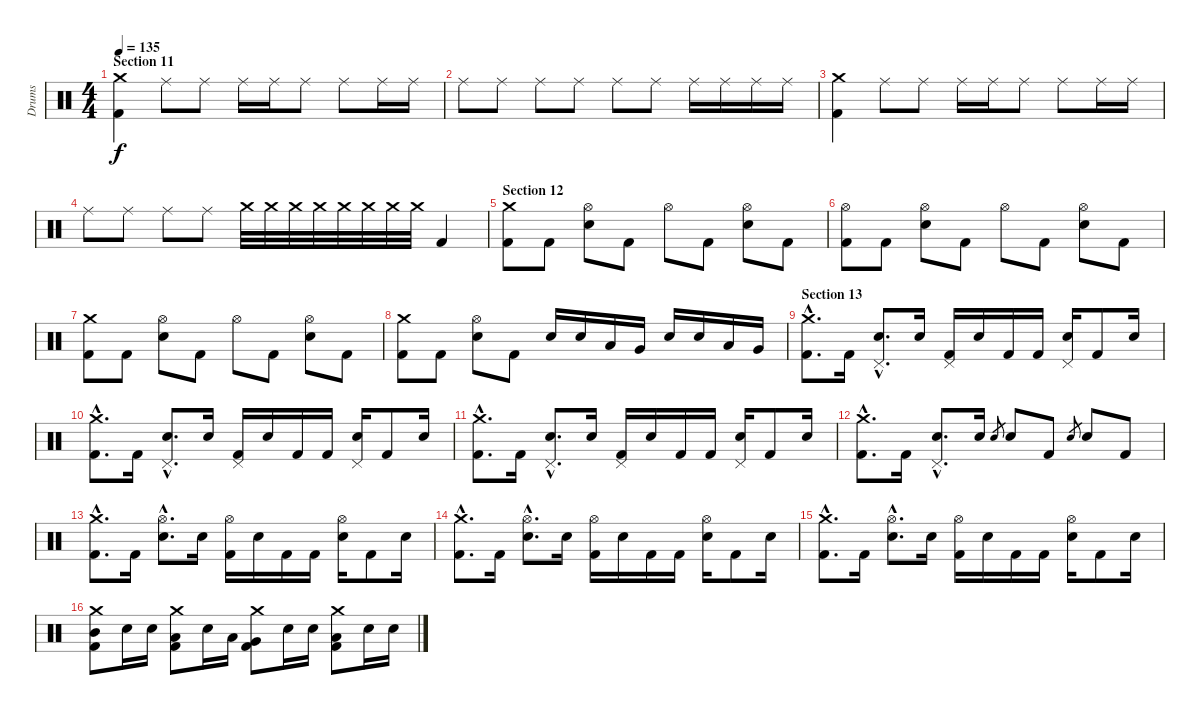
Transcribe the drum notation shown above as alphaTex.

\track ("Drums" "Drums") {instrument percussion}
\staff {score}
\articulation defaults
\ts (4 4)
\section ("" "Section 11")
\tempo 135
\clef neutral
\ks c
("Crash medium (hit)" "Kick (hit) 2").4{dy f} "Ride (middle)".8 "Ride (middle)".8 "Ride (middle)".16 "Ride (middle)".16 "Ride (middle)".8 "Ride (middle)".8 "Ride (middle)".16 "Ride (middle)".16 |
"Ride (middle)".8 "Ride (middle)".8 "Ride (middle)".8 "Ride (middle)".8 "Ride (middle)".8 "Ride (middle)".8 "Ride (middle)".16 "Ride (middle)".16 "Ride (middle)".16 "Ride (middle)".16 |
("Crash medium (hit)" "Kick (hit) 2").4 "Ride (middle)".8 "Ride (middle)".8 "Ride (middle)".16 "Ride (middle)".16 "Ride (middle)".8 "Ride (middle)".8 "Ride (middle)".16 "Ride (middle)".16 |
"Ride (middle)".8 "Ride (middle)".8 "Ride (middle)".8 "Ride (middle)".8{volume 0} "Crash medium (hit)".32{volume 13} "Crash medium (hit)".32 "Crash medium (hit)".32 "Crash medium (hit)".32 "Crash medium (hit)".32 "Crash medium (hit)".32 "Crash medium (hit)".32 "Crash medium (hit)".32 "Kick (hit) 2".4 |
\section ("" "Section 12")
("Crash medium (hit)" "Kick (hit) 2").8 "Kick (hit) 2".8 ("Hi-Hat (open)" "Electric Snare (hit)").8 "Kick (hit) 2".8 "Hi-Hat (open)".8 "Kick (hit) 2".8 ("Hi-Hat (open)" "Electric Snare (hit)").8 "Kick (hit) 2".8 |
("Hi-Hat (open)" "Kick (hit) 2").8 "Kick (hit) 2".8 ("Hi-Hat (open)" "Electric Snare (hit)").8 "Kick (hit) 2".8 "Hi-Hat (open)".8 "Kick (hit) 2".8 ("Hi-Hat (open)" "Electric Snare (hit)").8 "Kick (hit) 2".8 |
("Crash medium (hit)" "Kick (hit) 2").8 "Kick (hit) 2".8 ("Hi-Hat (open)" "Electric Snare (hit)").8 "Kick (hit) 2".8 "Hi-Hat (open)".8 "Kick (hit) 2".8 ("Hi-Hat (open)" "Electric Snare (hit)").8 "Kick (hit) 2".8 |
("Crash medium (hit)" "Kick (hit) 2").8 "Kick (hit) 2".8 ("Hi-Hat (open)" "Electric Snare (hit)").8 "Kick (hit) 2".8 "Electric Snare (hit)".16 "Electric Snare (hit)".16 "Low Tom (hit)".16 "Very Low Tom (hit)".16 "Electric Snare (hit)".16 "Electric Snare (hit)".16 "Low Tom (hit)".16 "Very Low Tom (hit)".16 |
\section ("" "Section 13")
("Crash medium (hit)"{hac} "Kick (hit) 2"{hac}).8{d} "Kick (hit) 2".16 ("Pedal Hi-Hat (hit)"{hac} "Electric Snare (hit)"{hac}).8{d} "Electric Snare (hit)".16 ("Pedal Hi-Hat (hit)" "Kick (hit) 2").16 "Electric Snare (hit)".16 "Kick (hit) 2".16 "Kick (hit) 2".16 ("Pedal Hi-Hat (hit)" "Electric Snare (hit)").16 "Kick (hit) 2".8 "Electric Snare (hit)".16 |
("Crash medium (hit)"{hac} "Kick (hit) 2"{hac}).8{d} "Kick (hit) 2".16 ("Pedal Hi-Hat (hit)"{hac} "Electric Snare (hit)"{hac}).8{d} "Electric Snare (hit)".16 ("Pedal Hi-Hat (hit)" "Kick (hit) 2").16 "Electric Snare (hit)".16 "Kick (hit) 2".16 "Kick (hit) 2".16 ("Pedal Hi-Hat (hit)" "Electric Snare (hit)").16 "Kick (hit) 2".8 "Electric Snare (hit)".16 |
("Crash medium (hit)"{hac} "Kick (hit) 2"{hac}).8{d} "Kick (hit) 2".16 ("Pedal Hi-Hat (hit)"{hac} "Electric Snare (hit)"{hac}).8{d} "Electric Snare (hit)".16 ("Pedal Hi-Hat (hit)" "Kick (hit) 2").16 "Electric Snare (hit)".16 "Kick (hit) 2".16 "Kick (hit) 2".16 ("Pedal Hi-Hat (hit)" "Electric Snare (hit)").16 "Kick (hit) 2".8 "Electric Snare (hit)".16 |
("Crash medium (hit)"{hac} "Kick (hit) 2"{hac}).8{d} "Kick (hit) 2".16 ("Pedal Hi-Hat (hit)"{hac} "Electric Snare (hit)"{hac}).8{d} "Electric Snare (hit)".16 "Electric Snare (hit)".8{gr} "Electric Snare (hit)".8 "Kick (hit) 2".8 "Electric Snare (hit)".8{gr} "Electric Snare (hit)".8 "Kick (hit) 2".8 |
("Crash medium (hit)"{hac} "Kick (hit) 2"{hac}).8{d} "Kick (hit) 2".16 ("Hi-Hat (open)"{hac} "Electric Snare (hit)"{hac}).8{d} "Electric Snare (hit)".16 ("Hi-Hat (open)" "Kick (hit) 2").16 "Electric Snare (hit)".16 "Kick (hit) 2".16 "Kick (hit) 2".16 ("Hi-Hat (open)" "Electric Snare (hit)").16 "Kick (hit) 2".8 "Electric Snare (hit)".16 |
("Crash medium (hit)"{hac} "Kick (hit) 2"{hac}).8{d} "Kick (hit) 2".16 ("Hi-Hat (open)"{hac} "Electric Snare (hit)"{hac}).8{d} "Electric Snare (hit)".16 ("Hi-Hat (open)" "Kick (hit) 2").16 "Electric Snare (hit)".16 "Kick (hit) 2".16 "Kick (hit) 2".16 ("Hi-Hat (open)" "Electric Snare (hit)").16 "Kick (hit) 2".8 "Electric Snare (hit)".16 |
("Crash medium (hit)"{hac} "Kick (hit) 2"{hac}).8{d} "Kick (hit) 2".16 ("Hi-Hat (open)"{hac} "Electric Snare (hit)"{hac}).8{d} "Electric Snare (hit)".16 ("Hi-Hat (open)" "Kick (hit) 2").16 "Electric Snare (hit)".16 "Kick (hit) 2".16 "Kick (hit) 2".16 ("Hi-Hat (open)" "Electric Snare (hit)").16 "Kick (hit) 2".8 "Electric Snare (hit)".16 |
("Crash medium (hit)" "Kick (hit) 2" "Mid Tom (hit)").8 "Electric Snare (hit)".16 "Electric Snare (hit)".16 ("Crash medium (hit)" "Kick (hit) 2" "Low Tom (hit)").8 "Electric Snare (hit)".16 "Low Tom (hit)".16 ("Crash medium (hit)" "Kick (hit) 2" "Very Low Tom (hit)").8 "Electric Snare (hit)".16 "Electric Snare (hit)".16 ("Crash medium (hit)" "Kick (hit) 2" "Low Tom (hit)").8 "Electric Snare (hit)".16 "Electric Snare (hit)".16
